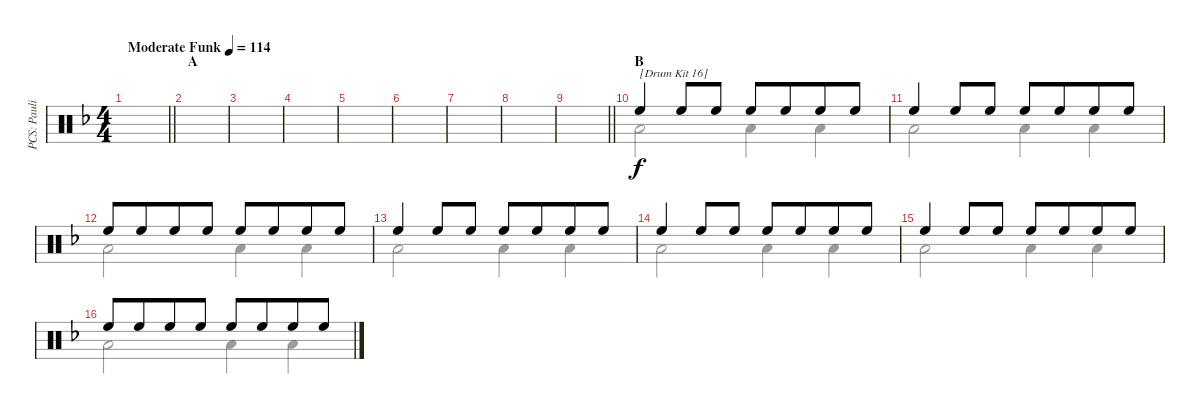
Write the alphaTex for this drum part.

\track ("PCS: Paulinho da Costa" "PCS: Pauli") {instrument percussion}
\staff {score}
\articulation defaults
\voice
\ts (4 4)
\tempo (114 "Moderate Funk")
\clef neutral
\barLineRight lightlight
\ks f
|
\section ("" "A")
|
|
|
|
|
|
|
\barLineRight lightlight
|
\section ("" "B")
"High Floor Tom (hit)".4{txt "[Drum Kit 16]"} "High Floor Tom (hit)".8 "High Floor Tom (hit)".8 "High Floor Tom (hit)".8 "High Floor Tom (hit)".8{beam merge} "High Floor Tom (hit)".8 "High Floor Tom (hit)".8 |
"High Floor Tom (hit)".4 "High Floor Tom (hit)".8 "High Floor Tom (hit)".8 "High Floor Tom (hit)".8 "High Floor Tom (hit)".8{beam merge} "High Floor Tom (hit)".8 "High Floor Tom (hit)".8 |
"High Floor Tom (hit)".8 "High Floor Tom (hit)".8{beam merge} "High Floor Tom (hit)".8 "High Floor Tom (hit)".8 "High Floor Tom (hit)".8{beam merge} "High Floor Tom (hit)".8{beam merge} "High Floor Tom (hit)".8 "High Floor Tom (hit)".8 |
"High Floor Tom (hit)".4 "High Floor Tom (hit)".8 "High Floor Tom (hit)".8 "High Floor Tom (hit)".8 "High Floor Tom (hit)".8{beam merge} "High Floor Tom (hit)".8 "High Floor Tom (hit)".8 |
"High Floor Tom (hit)".4 "High Floor Tom (hit)".8 "High Floor Tom (hit)".8 "High Floor Tom (hit)".8 "High Floor Tom (hit)".8{beam merge} "High Floor Tom (hit)".8 "High Floor Tom (hit)".8 |
"High Floor Tom (hit)".4 "High Floor Tom (hit)".8 "High Floor Tom (hit)".8 "High Floor Tom (hit)".8 "High Floor Tom (hit)".8{beam merge} "High Floor Tom (hit)".8 "High Floor Tom (hit)".8 |
"High Floor Tom (hit)".8 "High Floor Tom (hit)".8{beam merge} "High Floor Tom (hit)".8 "High Floor Tom (hit)".8 "High Floor Tom (hit)".8{beam merge} "High Floor Tom (hit)".8{beam merge} "High Floor Tom (hit)".8 "High Floor Tom (hit)".8
\voice
\clef neutral
\ottava regular
\simile none
\barLineRight lightlight
\ks f
|
|
|
|
|
|
|
|
\barLineRight lightlight
|
"Low Floor Tom (hit)".2 "Low Floor Tom (hit)".4 "Low Floor Tom (hit)".4 |
"Low Floor Tom (hit)".2 "Low Floor Tom (hit)".4 "Low Floor Tom (hit)".4 |
"Low Floor Tom (hit)".2 "Low Floor Tom (hit)".4 "Low Floor Tom (hit)".4 |
"Low Floor Tom (hit)".2 "Low Floor Tom (hit)".4 "Low Floor Tom (hit)".4 |
"Low Floor Tom (hit)".2 "Low Floor Tom (hit)".4 "Low Floor Tom (hit)".4 |
"Low Floor Tom (hit)".2 "Low Floor Tom (hit)".4 "Low Floor Tom (hit)".4 |
"Low Floor Tom (hit)".2 "Low Floor Tom (hit)".4 "Low Floor Tom (hit)".4
